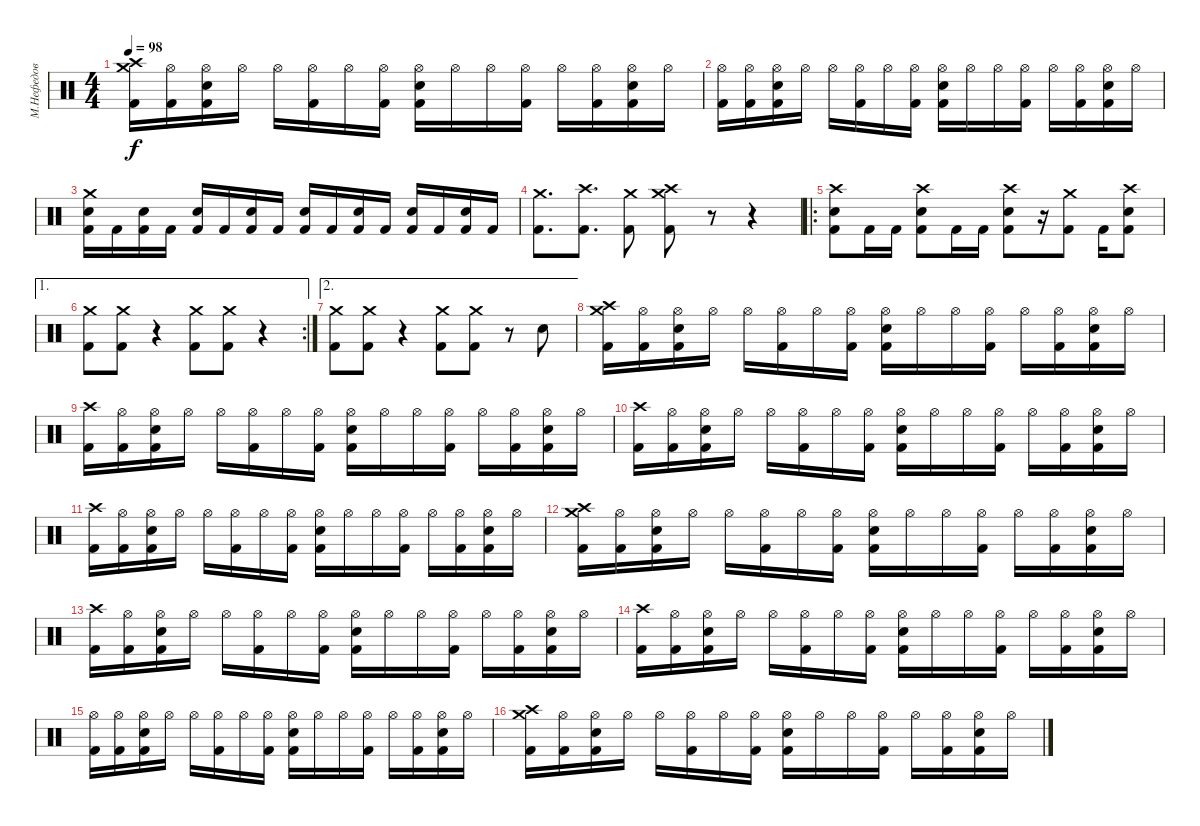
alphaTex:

\track ("М.Нефедов" "М.Нефедов") {instrument percussion}
\staff {score}
\articulation defaults
\ts (4 4)
\tempo 98
\clef neutral
\ks c
("Crash medium (hit)" "Crash high (hit)" "Kick (hit) 2").16{dy f} ("Hi-Hat (open)" "Kick (hit) 2").16 ("Hi-Hat (open)" "Snare (hit) 2" "Kick (hit) 2").16 "Hi-Hat (open)".16 "Hi-Hat (open)".16 ("Hi-Hat (open)" "Kick (hit) 2").16 "Hi-Hat (open)".16 ("Hi-Hat (open)" "Kick (hit) 2").16 ("Hi-Hat (open)" "Snare (hit) 2" "Kick (hit) 2").16 "Hi-Hat (open)".16 "Hi-Hat (open)".16 ("Hi-Hat (open)" "Kick (hit) 2").16 "Hi-Hat (open)".16 ("Hi-Hat (open)" "Kick (hit) 2").16 ("Hi-Hat (open)" "Snare (hit) 2" "Kick (hit) 2").16 "Hi-Hat (open)".16 |
("Hi-Hat (open)" "Kick (hit) 2").16 ("Hi-Hat (open)" "Kick (hit) 2").16 ("Hi-Hat (open)" "Snare (hit) 2" "Kick (hit) 2").16 "Hi-Hat (open)".16 "Hi-Hat (open)".16 ("Hi-Hat (open)" "Kick (hit) 2").16 "Hi-Hat (open)".16 ("Hi-Hat (open)" "Kick (hit) 2").16 ("Hi-Hat (open)" "Snare (hit) 2" "Kick (hit) 2").16 "Hi-Hat (open)".16 "Hi-Hat (open)".16 ("Hi-Hat (open)" "Kick (hit) 2").16 "Hi-Hat (open)".16 ("Hi-Hat (open)" "Kick (hit) 2").16 ("Hi-Hat (open)" "Snare (hit) 2" "Kick (hit) 2").16 "Hi-Hat (open)".16 |
("Crash medium (hit)" "Snare (hit) 2" "Kick (hit) 2").16 "Kick (hit) 2".16 ("Snare (hit) 2" "Kick (hit) 2").16 "Kick (hit) 2".16 ("Snare (hit) 2" "Kick (hit) 2").16 "Kick (hit) 2".16 ("Snare (hit) 2" "Kick (hit) 2").16 "Kick (hit) 2".16 ("Snare (hit) 2" "Kick (hit) 2").16 "Kick (hit) 2".16 ("Snare (hit) 2" "Kick (hit) 2").16 "Kick (hit) 2".16 ("Snare (hit) 2" "Kick (hit) 2").16 "Kick (hit) 2".16 ("Snare (hit) 2" "Kick (hit) 2").16 "Kick (hit) 2".16 |
("Crash medium (hit)" "Kick (hit) 2").8{d} ("Crash high (hit)" "Kick (hit) 2").8{d} ("Crash medium (hit)" "Kick (hit) 2").8 ("Crash medium (hit)" "Crash high (hit)" "Kick (hit) 2").8 r.8 r.4 |
\ro
("Crash high (hit)" "Snare (hit) 2" "Kick (hit) 2").8 "Kick (hit) 2".16 "Kick (hit) 2".16 ("Crash high (hit)" "Snare (hit) 2" "Kick (hit) 2").8 "Kick (hit) 2".16 "Kick (hit) 2".16 ("Crash high (hit)" "Snare (hit) 2" "Kick (hit) 2").8 r.16 ("Crash medium (hit)" "Kick (hit) 2").8 "Kick (hit) 2".16 ("Crash high (hit)" "Snare (hit) 2" "Kick (hit) 2").8 |
\ae 1
\rc 2
("Crash medium (hit)" "Kick (hit) 2").8 ("Crash medium (hit)" "Kick (hit) 2").8 r.4 ("Crash medium (hit)" "Kick (hit) 2").8 ("Crash medium (hit)" "Kick (hit) 2").8 r.4 |
\ae 2
("Crash medium (hit)" "Kick (hit) 2").8 ("Crash medium (hit)" "Kick (hit) 2").8 r.4 ("Crash medium (hit)" "Kick (hit) 2").8 ("Crash medium (hit)" "Kick (hit) 2").8 r.8 "Snare (hit) 2".8 |
("Crash medium (hit)" "Crash high (hit)" "Kick (hit) 2").16 ("Hi-Hat (open)" "Kick (hit) 2").16 ("Hi-Hat (open)" "Snare (hit) 2" "Kick (hit) 2").16 "Hi-Hat (open)".16 "Hi-Hat (open)".16 ("Hi-Hat (open)" "Kick (hit) 2").16 "Hi-Hat (open)".16 ("Hi-Hat (open)" "Kick (hit) 2").16 ("Hi-Hat (open)" "Snare (hit) 2" "Kick (hit) 2").16 "Hi-Hat (open)".16 "Hi-Hat (open)".16 ("Hi-Hat (open)" "Kick (hit) 2").16 "Hi-Hat (open)".16 ("Hi-Hat (open)" "Kick (hit) 2").16 ("Hi-Hat (open)" "Snare (hit) 2" "Kick (hit) 2").16 "Hi-Hat (open)".16 |
("Crash high (hit)" "Kick (hit) 2").16 ("Hi-Hat (open)" "Kick (hit) 2").16 ("Hi-Hat (open)" "Snare (hit) 2" "Kick (hit) 2").16 "Hi-Hat (open)".16 "Hi-Hat (open)".16 ("Hi-Hat (open)" "Kick (hit) 2").16 "Hi-Hat (open)".16 ("Hi-Hat (open)" "Kick (hit) 2").16 ("Hi-Hat (open)" "Snare (hit) 2" "Kick (hit) 2").16 "Hi-Hat (open)".16 "Hi-Hat (open)".16 ("Hi-Hat (open)" "Kick (hit) 2").16 "Hi-Hat (open)".16 ("Hi-Hat (open)" "Kick (hit) 2").16 ("Hi-Hat (open)" "Snare (hit) 2" "Kick (hit) 2").16 "Hi-Hat (open)".16 |
("Crash high (hit)" "Kick (hit) 2").16 ("Hi-Hat (open)" "Kick (hit) 2").16 ("Hi-Hat (open)" "Snare (hit) 2" "Kick (hit) 2").16 "Hi-Hat (open)".16 "Hi-Hat (open)".16 ("Hi-Hat (open)" "Kick (hit) 2").16 "Hi-Hat (open)".16 ("Hi-Hat (open)" "Kick (hit) 2").16 ("Hi-Hat (open)" "Snare (hit) 2" "Kick (hit) 2").16 "Hi-Hat (open)".16 "Hi-Hat (open)".16 ("Hi-Hat (open)" "Kick (hit) 2").16 "Hi-Hat (open)".16 ("Hi-Hat (open)" "Kick (hit) 2").16 ("Hi-Hat (open)" "Snare (hit) 2" "Kick (hit) 2").16 "Hi-Hat (open)".16 |
("Crash high (hit)" "Kick (hit) 2").16 ("Hi-Hat (open)" "Kick (hit) 2").16 ("Hi-Hat (open)" "Snare (hit) 2" "Kick (hit) 2").16 "Hi-Hat (open)".16 "Hi-Hat (open)".16 ("Hi-Hat (open)" "Kick (hit) 2").16 "Hi-Hat (open)".16 ("Hi-Hat (open)" "Kick (hit) 2").16 ("Hi-Hat (open)" "Snare (hit) 2" "Kick (hit) 2").16 "Hi-Hat (open)".16 "Hi-Hat (open)".16 ("Hi-Hat (open)" "Kick (hit) 2").16 "Hi-Hat (open)".16 ("Hi-Hat (open)" "Kick (hit) 2").16 ("Hi-Hat (open)" "Snare (hit) 2" "Kick (hit) 2").16 "Hi-Hat (open)".16 |
("Crash medium (hit)" "Crash high (hit)" "Kick (hit) 2").16 ("Hi-Hat (open)" "Kick (hit) 2").16 ("Hi-Hat (open)" "Snare (hit) 2" "Kick (hit) 2").16 "Hi-Hat (open)".16 "Hi-Hat (open)".16 ("Hi-Hat (open)" "Kick (hit) 2").16 "Hi-Hat (open)".16 ("Hi-Hat (open)" "Kick (hit) 2").16 ("Hi-Hat (open)" "Snare (hit) 2" "Kick (hit) 2").16 "Hi-Hat (open)".16 "Hi-Hat (open)".16 ("Hi-Hat (open)" "Kick (hit) 2").16 "Hi-Hat (open)".16 ("Hi-Hat (open)" "Kick (hit) 2").16 ("Hi-Hat (open)" "Snare (hit) 2" "Kick (hit) 2").16 "Hi-Hat (open)".16 |
("Crash high (hit)" "Kick (hit) 2").16 ("Hi-Hat (open)" "Kick (hit) 2").16 ("Hi-Hat (open)" "Snare (hit) 2" "Kick (hit) 2").16 "Hi-Hat (open)".16 "Hi-Hat (open)".16 ("Hi-Hat (open)" "Kick (hit) 2").16 "Hi-Hat (open)".16 ("Hi-Hat (open)" "Kick (hit) 2").16 ("Hi-Hat (open)" "Snare (hit) 2" "Kick (hit) 2").16 "Hi-Hat (open)".16 "Hi-Hat (open)".16 ("Hi-Hat (open)" "Kick (hit) 2").16 "Hi-Hat (open)".16 ("Hi-Hat (open)" "Kick (hit) 2").16 ("Hi-Hat (open)" "Snare (hit) 2" "Kick (hit) 2").16 "Hi-Hat (open)".16 |
("Crash high (hit)" "Kick (hit) 2").16 ("Hi-Hat (open)" "Kick (hit) 2").16 ("Hi-Hat (open)" "Snare (hit) 2" "Kick (hit) 2").16 "Hi-Hat (open)".16 "Hi-Hat (open)".16 ("Hi-Hat (open)" "Kick (hit) 2").16 "Hi-Hat (open)".16 ("Hi-Hat (open)" "Kick (hit) 2").16 ("Hi-Hat (open)" "Snare (hit) 2" "Kick (hit) 2").16 "Hi-Hat (open)".16 "Hi-Hat (open)".16 ("Hi-Hat (open)" "Kick (hit) 2").16 "Hi-Hat (open)".16 ("Hi-Hat (open)" "Kick (hit) 2").16 ("Hi-Hat (open)" "Snare (hit) 2" "Kick (hit) 2").16 "Hi-Hat (open)".16 |
("Hi-Hat (open)" "Kick (hit) 2").16 ("Hi-Hat (open)" "Kick (hit) 2").16 ("Hi-Hat (open)" "Snare (hit) 2" "Kick (hit) 2").16 "Hi-Hat (open)".16 "Hi-Hat (open)".16 ("Hi-Hat (open)" "Kick (hit) 2").16 "Hi-Hat (open)".16 ("Hi-Hat (open)" "Kick (hit) 2").16 ("Hi-Hat (open)" "Snare (hit) 2" "Kick (hit) 2").16 "Hi-Hat (open)".16 "Hi-Hat (open)".16 ("Hi-Hat (open)" "Kick (hit) 2").16 "Hi-Hat (open)".16 ("Hi-Hat (open)" "Kick (hit) 2").16 ("Hi-Hat (open)" "Snare (hit) 2" "Kick (hit) 2").16 "Hi-Hat (open)".16 |
("Crash medium (hit)" "Crash high (hit)" "Kick (hit) 2").16 ("Hi-Hat (open)" "Kick (hit) 2").16 ("Hi-Hat (open)" "Snare (hit) 2" "Kick (hit) 2").16 "Hi-Hat (open)".16 "Hi-Hat (open)".16 ("Hi-Hat (open)" "Kick (hit) 2").16 "Hi-Hat (open)".16 ("Hi-Hat (open)" "Kick (hit) 2").16 ("Hi-Hat (open)" "Snare (hit) 2" "Kick (hit) 2").16 "Hi-Hat (open)".16 "Hi-Hat (open)".16 ("Hi-Hat (open)" "Kick (hit) 2").16 "Hi-Hat (open)".16 ("Hi-Hat (open)" "Kick (hit) 2").16 ("Hi-Hat (open)" "Snare (hit) 2" "Kick (hit) 2").16 "Hi-Hat (open)".16
